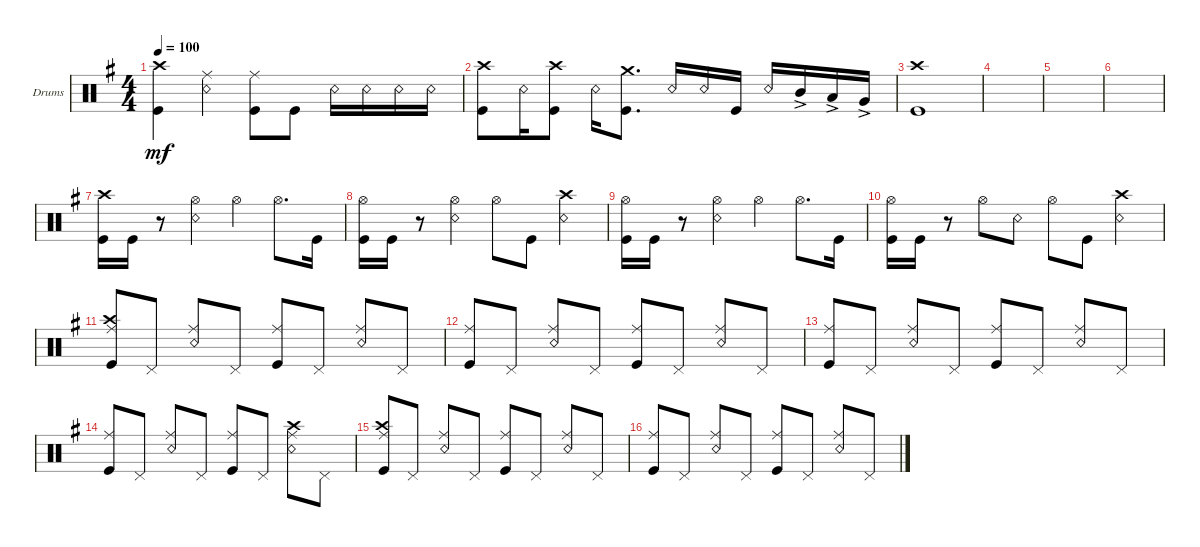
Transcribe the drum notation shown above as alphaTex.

\defaultSystemsLayout 4
\bracketExtendMode groupsimilarinstruments
\firstSystemTrackNameOrientation horizontal
\otherSystemsTrackNameOrientation horizontal
\track ("Drumkit" "Drums") {instrument percussion}
\staff {score}
\articulation defaults
\ts (4 4)
\tempo 100
\clef neutral
\ks eminor
("Kick (hit)" "Crash high (hit)").4{dy mf} ("Ride (middle)" "Snare (rim shot)").4 ("Kick (hit)" "Ride (middle)").8 "Kick (hit)".8 "Snare (rim shot)".16 "Snare (rim shot)".16 "Snare (rim shot)".16 "Snare (rim shot)".16 |
("Kick (hit)" "Crash high (hit)").8 "Snare (rim shot)".16 ("Kick (hit)" "Crash high (hit)").8 "Snare (rim shot)".16 ("Kick (hit)" "Crash medium (hit)").8{d} "Snare (rim shot)".16 "Snare (rim shot)".16 "Kick (hit)".16 "Snare (rim shot)".16 "Mid Tom (hit)"{ac}.16 "Low Tom (hit)"{ac}.16 "Very Low Tom (hit)"{ac}.16 |
("Crash high (hit)" "Kick (hit)").1 |
|
|
|
("Kick (hit)" "Crash high (hit)").16 "Kick (hit)".16 r.8 ("Hi-Hat (open)" "Snare (rim shot)").4 "Hi-Hat (open)".4 "Hi-Hat (open)".8{d} "Kick (hit)".16 |
("Kick (hit)" "Hi-Hat (open)").16 "Kick (hit)".16 r.8 ("Hi-Hat (open)" "Snare (rim shot)").4 "Hi-Hat (open)".8 "Kick (hit)".8 ("Snare (rim shot)" "Crash high (hit)").4 |
("Kick (hit)" "Hi-Hat (open)").16 "Kick (hit)".16 r.8 ("Hi-Hat (open)" "Snare (rim shot)").4 "Hi-Hat (open)".4 "Hi-Hat (open)".8{d} "Kick (hit)".16 |
("Kick (hit)" "Hi-Hat (open)").16 "Kick (hit)".16 r.8 "Hi-Hat (open)".8 "Snare (rim shot)".8 "Hi-Hat (open)".8 "Kick (hit)".8 ("Snare (rim shot)" "Crash high (hit)").4 |
("Kick (hit)" "Ride (middle)" "Crash high (hit)").8 "Pedal Hi-Hat (hit)".8 ("Ride (middle)" "Snare (rim shot)").8 "Pedal Hi-Hat (hit)".8 ("Kick (hit)" "Ride (middle)").8 "Pedal Hi-Hat (hit)".8 ("Ride (middle)" "Snare (rim shot)").8 "Pedal Hi-Hat (hit)".8 |
("Kick (hit)" "Ride (middle)").8 "Pedal Hi-Hat (hit)".8 ("Ride (middle)" "Snare (rim shot)").8 "Pedal Hi-Hat (hit)".8 ("Kick (hit)" "Ride (middle)").8 "Pedal Hi-Hat (hit)".8 ("Ride (middle)" "Snare (rim shot)").8 "Pedal Hi-Hat (hit)".8 |
("Kick (hit)" "Ride (middle)").8 "Pedal Hi-Hat (hit)".8 ("Ride (middle)" "Snare (rim shot)").8 "Pedal Hi-Hat (hit)".8 ("Kick (hit)" "Ride (middle)").8 "Pedal Hi-Hat (hit)".8 ("Ride (middle)" "Snare (rim shot)").8 "Pedal Hi-Hat (hit)".8 |
("Kick (hit)" "Ride (middle)").8 "Pedal Hi-Hat (hit)".8 ("Ride (middle)" "Snare (rim shot)").8 "Pedal Hi-Hat (hit)".8 ("Kick (hit)" "Ride (middle)").8 "Pedal Hi-Hat (hit)".8 ("Ride (middle)" "Snare (rim shot)" "Crash high (hit)").8 "Pedal Hi-Hat (hit)".8 |
("Kick (hit)" "Ride (middle)" "Crash high (hit)").8 "Pedal Hi-Hat (hit)".8 ("Ride (middle)" "Snare (rim shot)").8 "Pedal Hi-Hat (hit)".8 ("Kick (hit)" "Ride (middle)").8 "Pedal Hi-Hat (hit)".8 ("Ride (middle)" "Snare (rim shot)").8 "Pedal Hi-Hat (hit)".8 |
("Kick (hit)" "Ride (middle)").8 "Pedal Hi-Hat (hit)".8 ("Ride (middle)" "Snare (rim shot)").8 "Pedal Hi-Hat (hit)".8 ("Kick (hit)" "Ride (middle)").8 "Pedal Hi-Hat (hit)".8 ("Ride (middle)" "Snare (rim shot)").8 "Pedal Hi-Hat (hit)".8
